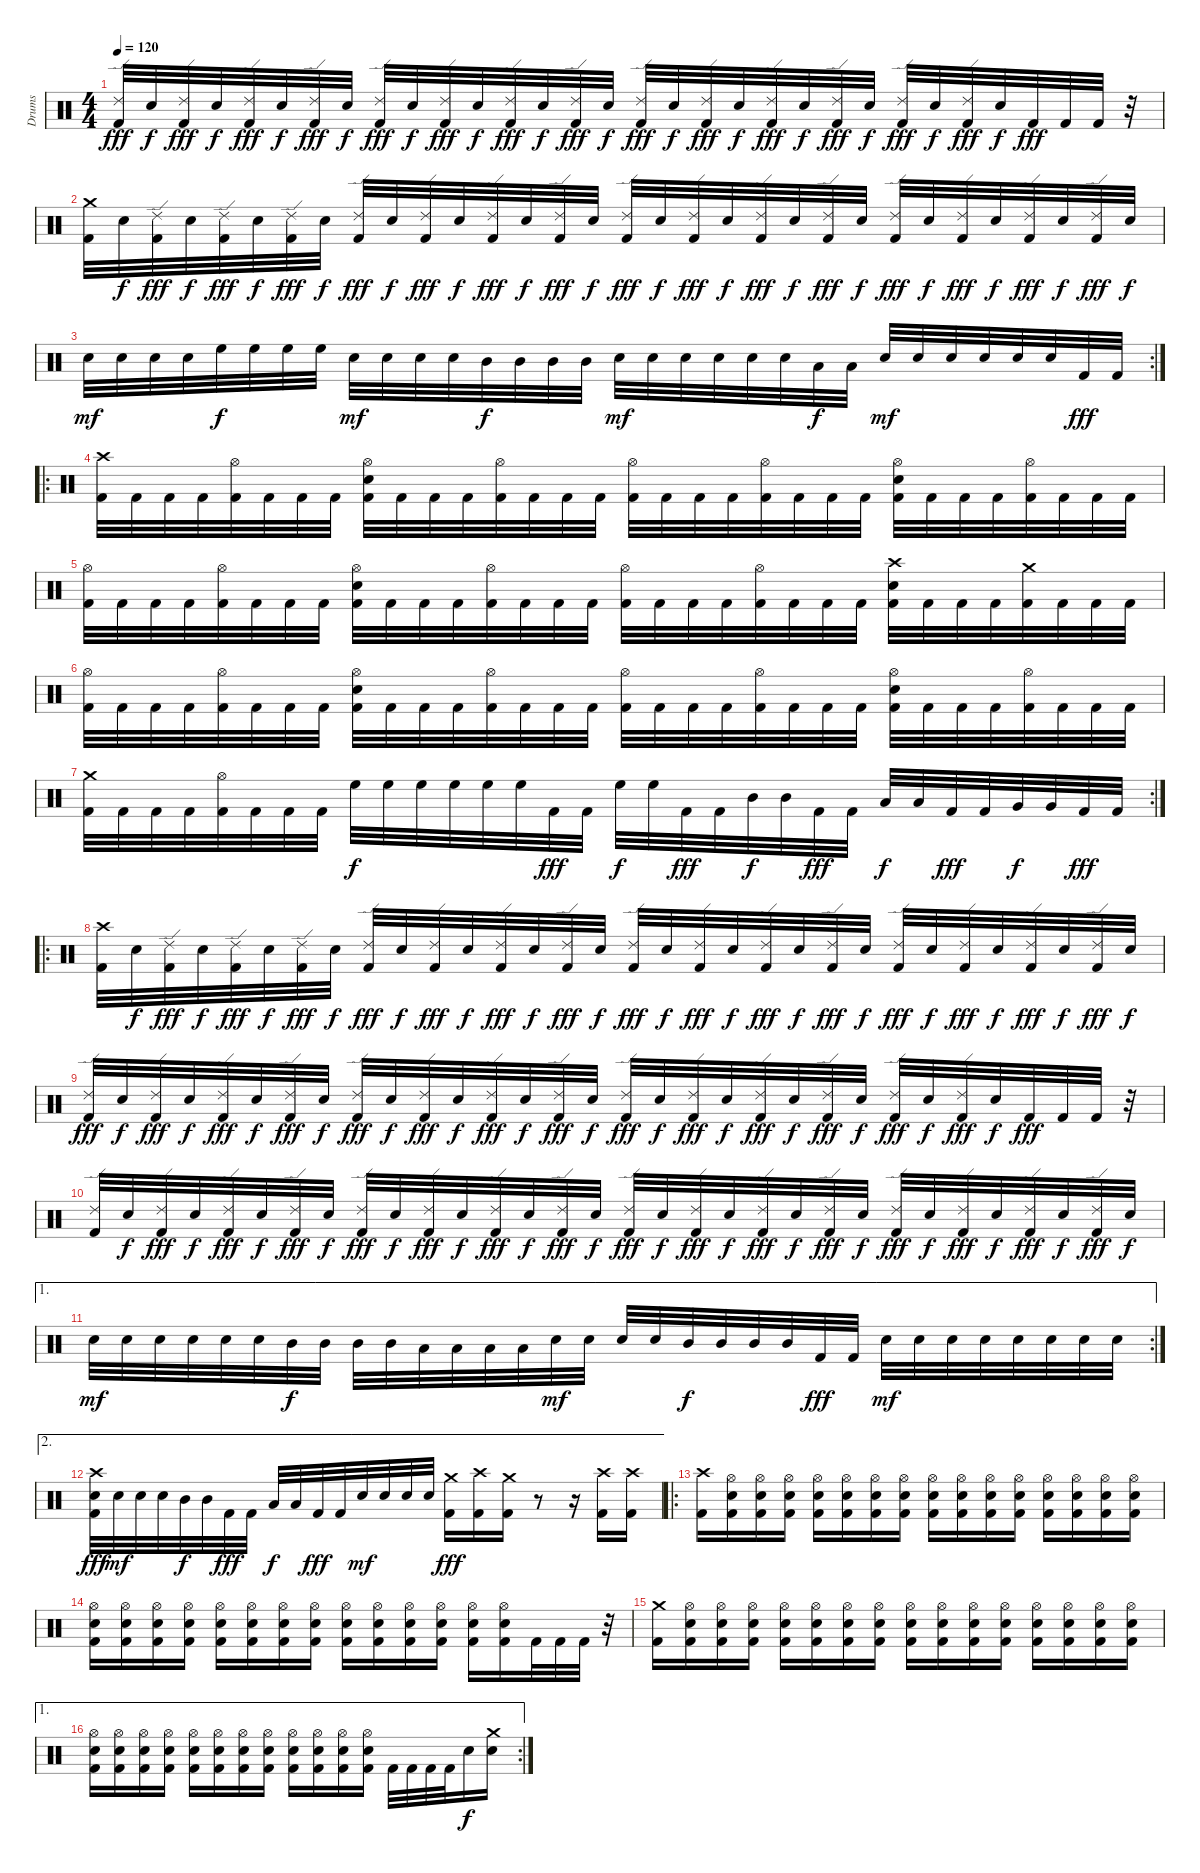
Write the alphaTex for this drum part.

\track ("Drums" "Drums") {instrument percussion}
\staff {score}
\articulation defaults
\ts (4 4)
\tempo 120
\clef neutral
\ks c
("Ride (edge) 2" "Kick (hit) 2").32{dy fff} "Electric Snare (hit)".32{dy f} ("Ride (edge) 2" "Kick (hit) 2").32{dy fff} "Electric Snare (hit)".32{dy f} ("Ride (edge) 2" "Kick (hit) 2").32{dy fff} "Electric Snare (hit)".32{dy f} ("Ride (edge) 2" "Kick (hit) 2").32{dy fff} "Electric Snare (hit)".32{dy f} ("Ride (edge) 2" "Kick (hit) 2").32{dy fff} "Electric Snare (hit)".32{dy f} ("Ride (edge) 2" "Kick (hit) 2").32{dy fff} "Electric Snare (hit)".32{dy f} ("Ride (edge) 2" "Kick (hit) 2").32{dy fff} "Electric Snare (hit)".32{dy f} ("Ride (edge) 2" "Kick (hit) 2").32{dy fff} "Electric Snare (hit)".32{dy f} ("Ride (edge) 2" "Kick (hit) 2").32{dy fff} "Electric Snare (hit)".32{dy f} ("Ride (edge) 2" "Kick (hit) 2").32{dy fff} "Electric Snare (hit)".32{dy f} ("Ride (edge) 2" "Kick (hit) 2").32{dy fff} "Electric Snare (hit)".32{dy f} ("Ride (edge) 2" "Kick (hit) 2").32{dy fff} "Electric Snare (hit)".32{dy f} ("Ride (edge) 2" "Kick (hit) 2").32{dy fff} "Electric Snare (hit)".32{dy f} ("Ride (edge) 2" "Kick (hit) 2").32{dy fff} "Electric Snare (hit)".32{dy f} "Kick (hit) 2".32{dy fff} "Kick (hit) 2".32 "Kick (hit) 2".32 r.32 |
("Crash medium (hit)" "Kick (hit) 2").32 "Electric Snare (hit)".32{dy f} ("Ride (edge) 2" "Kick (hit) 2").32{dy fff} "Electric Snare (hit)".32{dy f} ("Ride (edge) 2" "Kick (hit) 2").32{dy fff} "Electric Snare (hit)".32{dy f} ("Ride (edge) 2" "Kick (hit) 2").32{dy fff} "Electric Snare (hit)".32{dy f} ("Ride (edge) 2" "Kick (hit) 2").32{dy fff} "Electric Snare (hit)".32{dy f} ("Ride (edge) 2" "Kick (hit) 2").32{dy fff} "Electric Snare (hit)".32{dy f} ("Ride (edge) 2" "Kick (hit) 2").32{dy fff} "Electric Snare (hit)".32{dy f} ("Ride (edge) 2" "Kick (hit) 2").32{dy fff} "Electric Snare (hit)".32{dy f} ("Ride (edge) 2" "Kick (hit) 2").32{dy fff} "Electric Snare (hit)".32{dy f} ("Ride (edge) 2" "Kick (hit) 2").32{dy fff} "Electric Snare (hit)".32{dy f} ("Ride (edge) 2" "Kick (hit) 2").32{dy fff} "Electric Snare (hit)".32{dy f} ("Ride (edge) 2" "Kick (hit) 2").32{dy fff} "Electric Snare (hit)".32{dy f} ("Ride (edge) 2" "Kick (hit) 2").32{dy fff} "Electric Snare (hit)".32{dy f} ("Ride (edge) 2" "Kick (hit) 2").32{dy fff} "Electric Snare (hit)".32{dy f} ("Ride (edge) 2" "Kick (hit) 2").32{dy fff} "Electric Snare (hit)".32{dy f} ("Ride (edge) 2" "Kick (hit) 2").32{dy fff} "Electric Snare (hit)".32{dy f} |
\rc 2 "Electric Snare (hit)".32{dy mf} "Electric Snare (hit)".32 "Electric Snare (hit)".32 "Electric Snare (hit)".32 "High Floor Tom (hit)".32{dy f} "High Floor Tom (hit)".32 "High Floor Tom (hit)".32 "High Floor Tom (hit)".32 "Electric Snare (hit)".32{dy mf} "Electric Snare (hit)".32 "Electric Snare (hit)".32 "Electric Snare (hit)".32 "Mid Tom (hit)".32{dy f} "Mid Tom (hit)".32 "Mid Tom (hit)".32 "Mid Tom (hit)".32 "Electric Snare (hit)".32{dy mf} "Electric Snare (hit)".32 "Electric Snare (hit)".32 "Electric Snare (hit)".32 "Electric Snare (hit)".32 "Electric Snare (hit)".32 "Low Tom (hit)".32{dy f} "Low Tom (hit)".32 "Electric Snare (hit)".32{dy mf} "Electric Snare (hit)".32 "Electric Snare (hit)".32 "Electric Snare (hit)".32 "Electric Snare (hit)".32 "Electric Snare (hit)".32 "Kick (hit) 2".32{dy fff} "Kick (hit) 2".32
|
\ro
("Crash high (hit)" "Kick (hit) 2").32 "Kick (hit) 2".32 "Kick (hit) 2".32 "Kick (hit) 2".32 ("Hi-Hat (open)" "Kick (hit) 2").32 "Kick (hit) 2".32 "Kick (hit) 2".32 "Kick (hit) 2".32 ("Hi-Hat (open)" "Electric Snare (hit)" "Kick (hit) 2").32 "Kick (hit) 2".32 "Kick (hit) 2".32 "Kick (hit) 2".32 ("Hi-Hat (open)" "Kick (hit) 2").32 "Kick (hit) 2".32 "Kick (hit) 2".32 "Kick (hit) 2".32 ("Hi-Hat (open)" "Kick (hit) 2").32 "Kick (hit) 2".32 "Kick (hit) 2".32 "Kick (hit) 2".32 ("Hi-Hat (open)" "Kick (hit) 2").32 "Kick (hit) 2".32 "Kick (hit) 2".32 "Kick (hit) 2".32 ("Hi-Hat (open)" "Electric Snare (hit)" "Kick (hit) 2").32 "Kick (hit) 2".32 "Kick (hit) 2".32 "Kick (hit) 2".32 ("Hi-Hat (open)" "Kick (hit) 2").32 "Kick (hit) 2".32 "Kick (hit) 2".32 "Kick (hit) 2".32 |
("Hi-Hat (open)" "Kick (hit) 2").32 "Kick (hit) 2".32 "Kick (hit) 2".32 "Kick (hit) 2".32 ("Hi-Hat (open)" "Kick (hit) 2").32 "Kick (hit) 2".32 "Kick (hit) 2".32 "Kick (hit) 2".32 ("Hi-Hat (open)" "Electric Snare (hit)" "Kick (hit) 2").32 "Kick (hit) 2".32 "Kick (hit) 2".32 "Kick (hit) 2".32 ("Hi-Hat (open)" "Kick (hit) 2").32 "Kick (hit) 2".32 "Kick (hit) 2".32 "Kick (hit) 2".32 ("Hi-Hat (open)" "Kick (hit) 2").32 "Kick (hit) 2".32 "Kick (hit) 2".32 "Kick (hit) 2".32 ("Hi-Hat (open)" "Kick (hit) 2").32 "Kick (hit) 2".32 "Kick (hit) 2".32 "Kick (hit) 2".32 ("Crash high (hit)" "Electric Snare (hit)" "Kick (hit) 2").32 "Kick (hit) 2".32 "Kick (hit) 2".32 "Kick (hit) 2".32 ("Crash medium (hit)" "Kick (hit) 2").32 "Kick (hit) 2".32 "Kick (hit) 2".32 "Kick (hit) 2".32 |
("Hi-Hat (open)" "Kick (hit) 2").32 "Kick (hit) 2".32 "Kick (hit) 2".32 "Kick (hit) 2".32 ("Hi-Hat (open)" "Kick (hit) 2").32 "Kick (hit) 2".32 "Kick (hit) 2".32 "Kick (hit) 2".32 ("Hi-Hat (open)" "Electric Snare (hit)" "Kick (hit) 2").32 "Kick (hit) 2".32 "Kick (hit) 2".32 "Kick (hit) 2".32 ("Hi-Hat (open)" "Kick (hit) 2").32 "Kick (hit) 2".32 "Kick (hit) 2".32 "Kick (hit) 2".32 ("Hi-Hat (open)" "Kick (hit) 2").32 "Kick (hit) 2".32 "Kick (hit) 2".32 "Kick (hit) 2".32 ("Hi-Hat (open)" "Kick (hit) 2").32 "Kick (hit) 2".32 "Kick (hit) 2".32 "Kick (hit) 2".32 ("Hi-Hat (open)" "Electric Snare (hit)" "Kick (hit) 2").32 "Kick (hit) 2".32 "Kick (hit) 2".32 "Kick (hit) 2".32 ("Hi-Hat (open)" "Kick (hit) 2").32 "Kick (hit) 2".32 "Kick (hit) 2".32 "Kick (hit) 2".32 |
\rc 2
("Crash medium (hit)" "Kick (hit) 2").32 "Kick (hit) 2".32 "Kick (hit) 2".32 "Kick (hit) 2".32 ("Hi-Hat (open)" "Kick (hit) 2").32 "Kick (hit) 2".32 "Kick (hit) 2".32 "Kick (hit) 2".32 "High Floor Tom (hit)".32{dy f} "High Floor Tom (hit)".32 "High Floor Tom (hit)".32 "High Floor Tom (hit)".32 "High Floor Tom (hit)".32 "High Floor Tom (hit)".32 "Kick (hit) 2".32{dy fff} "Kick (hit) 2".32 "High Floor Tom (hit)".32{dy f} "High Floor Tom (hit)".32 "Kick (hit) 2".32{dy fff} "Kick (hit) 2".32 "Mid Tom (hit)".32{dy f} "Mid Tom (hit)".32 "Kick (hit) 2".32{dy fff} "Kick (hit) 2".32 "Low Tom (hit)".32{dy f} "Low Tom (hit)".32 "Kick (hit) 2".32{dy fff} "Kick (hit) 2".32 "Very Low Tom (hit)".32{dy f} "Very Low Tom (hit)".32 "Kick (hit) 2".32{dy fff} "Kick (hit) 2".32 |
\ro
("Crash high (hit)" "Kick (hit) 2").32 "Electric Snare (hit)".32{dy f} ("Ride (edge) 2" "Kick (hit) 2").32{dy fff} "Electric Snare (hit)".32{dy f} ("Ride (edge) 2" "Kick (hit) 2").32{dy fff} "Electric Snare (hit)".32{dy f} ("Ride (edge) 2" "Kick (hit) 2").32{dy fff} "Electric Snare (hit)".32{dy f} ("Ride (edge) 2" "Kick (hit) 2").32{dy fff} "Electric Snare (hit)".32{dy f} ("Ride (edge) 2" "Kick (hit) 2").32{dy fff} "Electric Snare (hit)".32{dy f} ("Ride (edge) 2" "Kick (hit) 2").32{dy fff} "Electric Snare (hit)".32{dy f} ("Ride (edge) 2" "Kick (hit) 2").32{dy fff} "Electric Snare (hit)".32{dy f} ("Ride (edge) 2" "Kick (hit) 2").32{dy fff} "Electric Snare (hit)".32{dy f} ("Ride (edge) 2" "Kick (hit) 2").32{dy fff} "Electric Snare (hit)".32{dy f} ("Ride (edge) 2" "Kick (hit) 2").32{dy fff} "Electric Snare (hit)".32{dy f} ("Ride (edge) 2" "Kick (hit) 2").32{dy fff} "Electric Snare (hit)".32{dy f} ("Ride (edge) 2" "Kick (hit) 2").32{dy fff} "Electric Snare (hit)".32{dy f} ("Ride (edge) 2" "Kick (hit) 2").32{dy fff} "Electric Snare (hit)".32{dy f} ("Ride (edge) 2" "Kick (hit) 2").32{dy fff} "Electric Snare (hit)".32{dy f} ("Ride (edge) 2" "Kick (hit) 2").32{dy fff} "Electric Snare (hit)".32{dy f} |
("Ride (edge) 2" "Kick (hit) 2").32{dy fff} "Electric Snare (hit)".32{dy f} ("Ride (edge) 2" "Kick (hit) 2").32{dy fff} "Electric Snare (hit)".32{dy f} ("Ride (edge) 2" "Kick (hit) 2").32{dy fff} "Electric Snare (hit)".32{dy f} ("Ride (edge) 2" "Kick (hit) 2").32{dy fff} "Electric Snare (hit)".32{dy f} ("Ride (edge) 2" "Kick (hit) 2").32{dy fff} "Electric Snare (hit)".32{dy f} ("Ride (edge) 2" "Kick (hit) 2").32{dy fff} "Electric Snare (hit)".32{dy f} ("Ride (edge) 2" "Kick (hit) 2").32{dy fff} "Electric Snare (hit)".32{dy f} ("Ride (edge) 2" "Kick (hit) 2").32{dy fff} "Electric Snare (hit)".32{dy f} ("Ride (edge) 2" "Kick (hit) 2").32{dy fff} "Electric Snare (hit)".32{dy f} ("Ride (edge) 2" "Kick (hit) 2").32{dy fff} "Electric Snare (hit)".32{dy f} ("Ride (edge) 2" "Kick (hit) 2").32{dy fff} "Electric Snare (hit)".32{dy f} ("Ride (edge) 2" "Kick (hit) 2").32{dy fff} "Electric Snare (hit)".32{dy f} ("Ride (edge) 2" "Kick (hit) 2").32{dy fff} "Electric Snare (hit)".32{dy f} ("Ride (edge) 2" "Kick (hit) 2").32{dy fff} "Electric Snare (hit)".32{dy f} "Kick (hit) 2".32{dy fff} "Kick (hit) 2".32 "Kick (hit) 2".32 r.32 |
("Ride (edge) 2" "Kick (hit) 2").32 "Electric Snare (hit)".32{dy f} ("Ride (edge) 2" "Kick (hit) 2").32{dy fff} "Electric Snare (hit)".32{dy f} ("Ride (edge) 2" "Kick (hit) 2").32{dy fff} "Electric Snare (hit)".32{dy f} ("Ride (edge) 2" "Kick (hit) 2").32{dy fff} "Electric Snare (hit)".32{dy f} ("Ride (edge) 2" "Kick (hit) 2").32{dy fff} "Electric Snare (hit)".32{dy f} ("Ride (edge) 2" "Kick (hit) 2").32{dy fff} "Electric Snare (hit)".32{dy f} ("Ride (edge) 2" "Kick (hit) 2").32{dy fff} "Electric Snare (hit)".32{dy f} ("Ride (edge) 2" "Kick (hit) 2").32{dy fff} "Electric Snare (hit)".32{dy f} ("Ride (edge) 2" "Kick (hit) 2").32{dy fff} "Electric Snare (hit)".32{dy f} ("Ride (edge) 2" "Kick (hit) 2").32{dy fff} "Electric Snare (hit)".32{dy f} ("Ride (edge) 2" "Kick (hit) 2").32{dy fff} "Electric Snare (hit)".32{dy f} ("Ride (edge) 2" "Kick (hit) 2").32{dy fff} "Electric Snare (hit)".32{dy f} ("Ride (edge) 2" "Kick (hit) 2").32{dy fff} "Electric Snare (hit)".32{dy f} ("Ride (edge) 2" "Kick (hit) 2").32{dy fff} "Electric Snare (hit)".32{dy f} ("Ride (edge) 2" "Kick (hit) 2").32{dy fff} "Electric Snare (hit)".32{dy f} ("Ride (edge) 2" "Kick (hit) 2").32{dy fff} "Electric Snare (hit)".32{dy f} |
\ae 1
\rc 2 "Electric Snare (hit)".32{dy mf} "Electric Snare (hit)".32 "Electric Snare (hit)".32 "Electric Snare (hit)".32 "Electric Snare (hit)".32 "Electric Snare (hit)".32 "Mid Tom (hit)".32{dy f} "Mid Tom (hit)".32 "Mid Tom (hit)".32 "Mid Tom (hit)".32 "Low Tom (hit)".32 "Low Tom (hit)".32 "Low Tom (hit)".32 "Low Tom (hit)".32 "Electric Snare (hit)".32{dy mf} "Electric Snare (hit)".32 "Electric Snare (hit)".32 "Electric Snare (hit)".32 "Mid Tom (hit)".32{dy f} "Mid Tom (hit)".32 "Mid Tom (hit)".32 "Mid Tom (hit)".32 "Kick (hit) 2".32{dy fff} "Kick (hit) 2".32 "Electric Snare (hit)".32{dy mf} "Electric Snare (hit)".32 "Electric Snare (hit)".32 "Electric Snare (hit)".32 "Electric Snare (hit)".32 "Electric Snare (hit)".32 "Electric Snare (hit)".32 "Electric Snare (hit)".32
|
\ae 2
("Crash high (hit)" "Electric Snare (hit)" "Kick (hit) 2").32{dy fff} "Electric Snare (hit)".32{dy mf} "Electric Snare (hit)".32 "Electric Snare (hit)".32 "Mid Tom (hit)".32{dy f} "Mid Tom (hit)".32 "Kick (hit) 2".32{dy fff} "Kick (hit) 2".32 "Low Tom (hit)".32{dy f} "Low Tom (hit)".32 "Kick (hit) 2".32{dy fff} "Kick (hit) 2".32 "Electric Snare (hit)".32{dy mf} "Electric Snare (hit)".32 "Electric Snare (hit)".32 "Electric Snare (hit)".32 ("Crash medium (hit)" "Kick (hit) 2").16{dy fff} ("Crash high (hit)" "Kick (hit) 2").16 ("Crash medium (hit)" "Kick (hit) 2").16 r.8 r.16 ("Crash high (hit)" "Kick (hit) 2").16 ("Crash high (hit)" "Kick (hit) 2").16 |
\ro
("Crash high (hit)" "Kick (hit) 2").16 ("Hi-Hat (open)" "Electric Snare (hit)" "Kick (hit) 2").16 ("Hi-Hat (open)" "Electric Snare (hit)" "Kick (hit) 2").16 ("Hi-Hat (open)" "Electric Snare (hit)" "Kick (hit) 2").16 ("Hi-Hat (open)" "Electric Snare (hit)" "Kick (hit) 2").16 ("Hi-Hat (open)" "Electric Snare (hit)" "Kick (hit) 2").16 ("Hi-Hat (open)" "Electric Snare (hit)" "Kick (hit) 2").16 ("Hi-Hat (open)" "Electric Snare (hit)" "Kick (hit) 2").16 ("Hi-Hat (open)" "Electric Snare (hit)" "Kick (hit) 2").16 ("Hi-Hat (open)" "Electric Snare (hit)" "Kick (hit) 2").16 ("Hi-Hat (open)" "Electric Snare (hit)" "Kick (hit) 2").16 ("Hi-Hat (open)" "Electric Snare (hit)" "Kick (hit) 2").16 ("Hi-Hat (open)" "Electric Snare (hit)" "Kick (hit) 2").16 ("Hi-Hat (open)" "Electric Snare (hit)" "Kick (hit) 2").16 ("Hi-Hat (open)" "Electric Snare (hit)" "Kick (hit) 2").16 ("Hi-Hat (open)" "Electric Snare (hit)" "Kick (hit) 2").16 |
("Hi-Hat (open)" "Electric Snare (hit)" "Kick (hit) 2").16 ("Hi-Hat (open)" "Electric Snare (hit)" "Kick (hit) 2").16 ("Hi-Hat (open)" "Electric Snare (hit)" "Kick (hit) 2").16 ("Hi-Hat (open)" "Electric Snare (hit)" "Kick (hit) 2").16 ("Hi-Hat (open)" "Electric Snare (hit)" "Kick (hit) 2").16 ("Hi-Hat (open)" "Electric Snare (hit)" "Kick (hit) 2").16 ("Hi-Hat (open)" "Electric Snare (hit)" "Kick (hit) 2").16 ("Hi-Hat (open)" "Electric Snare (hit)" "Kick (hit) 2").16 ("Hi-Hat (open)" "Electric Snare (hit)" "Kick (hit) 2").16 ("Hi-Hat (open)" "Electric Snare (hit)" "Kick (hit) 2").16 ("Hi-Hat (open)" "Electric Snare (hit)" "Kick (hit) 2").16 ("Hi-Hat (open)" "Electric Snare (hit)" "Kick (hit) 2").16 ("Hi-Hat (open)" "Electric Snare (hit)" "Kick (hit) 2").16 ("Hi-Hat (open)" "Electric Snare (hit)" "Kick (hit) 2").16 "Kick (hit) 2".32 "Kick (hit) 2".32 "Kick (hit) 2".32 r.32 |
("Crash medium (hit)" "Kick (hit) 2").16 ("Hi-Hat (open)" "Electric Snare (hit)" "Kick (hit) 2").16 ("Hi-Hat (open)" "Electric Snare (hit)" "Kick (hit) 2").16 ("Hi-Hat (open)" "Electric Snare (hit)" "Kick (hit) 2").16 ("Hi-Hat (open)" "Electric Snare (hit)" "Kick (hit) 2").16 ("Hi-Hat (open)" "Electric Snare (hit)" "Kick (hit) 2").16 ("Hi-Hat (open)" "Electric Snare (hit)" "Kick (hit) 2").16 ("Hi-Hat (open)" "Electric Snare (hit)" "Kick (hit) 2").16 ("Hi-Hat (open)" "Electric Snare (hit)" "Kick (hit) 2").16 ("Hi-Hat (open)" "Electric Snare (hit)" "Kick (hit) 2").16 ("Hi-Hat (open)" "Electric Snare (hit)" "Kick (hit) 2").16 ("Hi-Hat (open)" "Electric Snare (hit)" "Kick (hit) 2").16 ("Hi-Hat (open)" "Electric Snare (hit)" "Kick (hit) 2").16 ("Hi-Hat (open)" "Electric Snare (hit)" "Kick (hit) 2").16 ("Hi-Hat (open)" "Electric Snare (hit)" "Kick (hit) 2").16 ("Hi-Hat (open)" "Electric Snare (hit)" "Kick (hit) 2").16 |
\ae 1
\rc 2
("Hi-Hat (open)" "Electric Snare (hit)" "Kick (hit) 2").16 ("Hi-Hat (open)" "Electric Snare (hit)" "Kick (hit) 2").16 ("Hi-Hat (open)" "Electric Snare (hit)" "Kick (hit) 2").16 ("Hi-Hat (open)" "Electric Snare (hit)" "Kick (hit) 2").16 ("Hi-Hat (open)" "Electric Snare (hit)" "Kick (hit) 2").16 ("Hi-Hat (open)" "Electric Snare (hit)" "Kick (hit) 2").16 ("Hi-Hat (open)" "Electric Snare (hit)" "Kick (hit) 2").16 ("Hi-Hat (open)" "Electric Snare (hit)" "Kick (hit) 2").16 ("Hi-Hat (open)" "Electric Snare (hit)" "Kick (hit) 2").16 ("Hi-Hat (open)" "Electric Snare (hit)" "Kick (hit) 2").16 ("Hi-Hat (open)" "Electric Snare (hit)" "Kick (hit) 2").16 ("Hi-Hat (open)" "Electric Snare (hit)" "Kick (hit) 2").16 "Kick (hit) 2".32 "Kick (hit) 2".32 "Kick (hit) 2".32 "Kick (hit) 2".32 "Electric Snare (hit)".16{dy f} ("Crash medium (hit)" "Electric Snare (hit)").16
